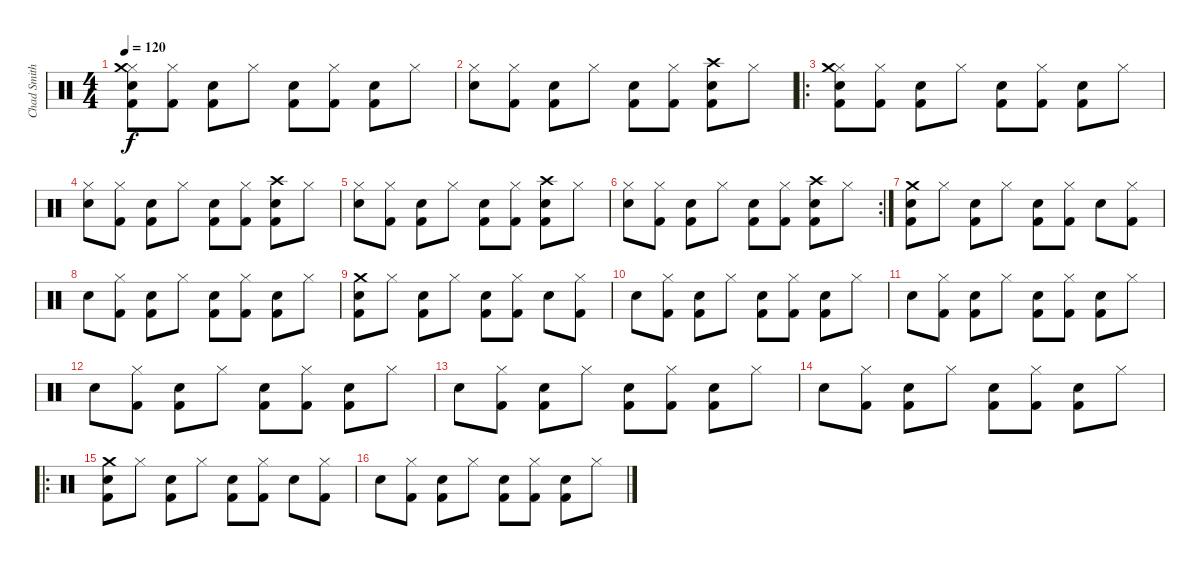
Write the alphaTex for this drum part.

\track ("Chad Smith" "Chad Smith") {instrument percussion}
\staff {score}
\articulation defaults
\ts (4 4)
\tempo 120
\clef neutral
\ks c
("Electric Snare (hit)" "Hi-Hat (closed)" "Crash medium (hit)" "Kick (hit) 2").8{dy f} ("Hi-Hat (closed)" "Kick (hit) 2").8 ("Electric Snare (hit)" "Kick (hit) 2").8 "Hi-Hat (closed)".8 ("Electric Snare (hit)" "Kick (hit) 2").8 ("Hi-Hat (closed)" "Kick (hit) 2").8 ("Electric Snare (hit)" "Kick (hit) 2").8 "Hi-Hat (closed)".8 |
("Electric Snare (hit)" "Hi-Hat (closed)").8 ("Hi-Hat (closed)" "Kick (hit) 2").8 ("Electric Snare (hit)" "Kick (hit) 2").8 "Hi-Hat (closed)".8 ("Electric Snare (hit)" "Kick (hit) 2").8 ("Hi-Hat (closed)" "Kick (hit) 2").8 ("Electric Snare (hit)" "Kick (hit) 2" "Crash high (hit)").8 "Hi-Hat (closed)".8 |
\ro
("Electric Snare (hit)" "Hi-Hat (closed)" "Crash medium (hit)" "Kick (hit) 2").8 ("Hi-Hat (closed)" "Kick (hit) 2").8 ("Electric Snare (hit)" "Kick (hit) 2").8 "Hi-Hat (closed)".8 ("Electric Snare (hit)" "Kick (hit) 2").8 ("Hi-Hat (closed)" "Kick (hit) 2").8 ("Electric Snare (hit)" "Kick (hit) 2").8 "Hi-Hat (closed)".8 |
("Electric Snare (hit)" "Hi-Hat (closed)").8 ("Hi-Hat (closed)" "Kick (hit) 2").8 ("Electric Snare (hit)" "Kick (hit) 2").8 "Hi-Hat (closed)".8 ("Electric Snare (hit)" "Kick (hit) 2").8 ("Hi-Hat (closed)" "Kick (hit) 2").8 ("Electric Snare (hit)" "Kick (hit) 2" "Crash high (hit)").8 "Hi-Hat (closed)".8 |
("Electric Snare (hit)" "Hi-Hat (closed)").8 ("Hi-Hat (closed)" "Kick (hit) 2").8 ("Electric Snare (hit)" "Kick (hit) 2").8 "Hi-Hat (closed)".8 ("Electric Snare (hit)" "Kick (hit) 2").8 ("Hi-Hat (closed)" "Kick (hit) 2").8 ("Electric Snare (hit)" "Kick (hit) 2" "Crash high (hit)").8 "Hi-Hat (closed)".8 |
\rc 2
("Electric Snare (hit)" "Hi-Hat (closed)").8 ("Hi-Hat (closed)" "Kick (hit) 2").8 ("Electric Snare (hit)" "Kick (hit) 2").8 "Hi-Hat (closed)".8 ("Electric Snare (hit)" "Kick (hit) 2").8 ("Hi-Hat (closed)" "Kick (hit) 2").8 ("Electric Snare (hit)" "Kick (hit) 2" "Crash high (hit)").8 "Hi-Hat (closed)".8 |
("Electric Snare (hit)" "Crash medium (hit)" "Kick (hit) 2").8 "Hi-Hat (closed)".8 ("Electric Snare (hit)" "Kick (hit) 2").8 "Hi-Hat (closed)".8 ("Electric Snare (hit)" "Kick (hit) 2").8 ("Hi-Hat (closed)" "Kick (hit) 2").8 "Electric Snare (hit)".8 ("Hi-Hat (closed)" "Kick (hit) 2").8 |
"Electric Snare (hit)".8 ("Hi-Hat (closed)" "Kick (hit) 2").8 ("Electric Snare (hit)" "Kick (hit) 2").8 "Hi-Hat (closed)".8 ("Electric Snare (hit)" "Kick (hit) 2").8 ("Hi-Hat (closed)" "Kick (hit) 2").8 ("Electric Snare (hit)" "Kick (hit) 2").8 "Hi-Hat (closed)".8 |
("Electric Snare (hit)" "Crash medium (hit)" "Kick (hit) 2").8 "Hi-Hat (closed)".8 ("Electric Snare (hit)" "Kick (hit) 2").8 "Hi-Hat (closed)".8 ("Electric Snare (hit)" "Kick (hit) 2").8 ("Hi-Hat (closed)" "Kick (hit) 2").8 "Electric Snare (hit)".8 ("Hi-Hat (closed)" "Kick (hit) 2").8 |
"Electric Snare (hit)".8 ("Hi-Hat (closed)" "Kick (hit) 2").8 ("Electric Snare (hit)" "Kick (hit) 2").8 "Hi-Hat (closed)".8 ("Electric Snare (hit)" "Kick (hit) 2").8 ("Hi-Hat (closed)" "Kick (hit) 2").8 ("Electric Snare (hit)" "Kick (hit) 2").8 "Hi-Hat (closed)".8 |
"Electric Snare (hit)".8 ("Hi-Hat (closed)" "Kick (hit) 2").8 ("Electric Snare (hit)" "Kick (hit) 2").8 "Hi-Hat (closed)".8 ("Electric Snare (hit)" "Kick (hit) 2").8 ("Hi-Hat (closed)" "Kick (hit) 2").8 ("Electric Snare (hit)" "Kick (hit) 2").8 "Hi-Hat (closed)".8 |
"Electric Snare (hit)".8 ("Hi-Hat (closed)" "Kick (hit) 2").8 ("Electric Snare (hit)" "Kick (hit) 2").8 "Hi-Hat (closed)".8 ("Electric Snare (hit)" "Kick (hit) 2").8 ("Hi-Hat (closed)" "Kick (hit) 2").8 ("Electric Snare (hit)" "Kick (hit) 2").8 "Hi-Hat (closed)".8 |
"Electric Snare (hit)".8 ("Hi-Hat (closed)" "Kick (hit) 2").8 ("Electric Snare (hit)" "Kick (hit) 2").8 "Hi-Hat (closed)".8 ("Electric Snare (hit)" "Kick (hit) 2").8 ("Hi-Hat (closed)" "Kick (hit) 2").8 ("Electric Snare (hit)" "Kick (hit) 2").8 "Hi-Hat (closed)".8 |
"Electric Snare (hit)".8 ("Hi-Hat (closed)" "Kick (hit) 2").8 ("Electric Snare (hit)" "Kick (hit) 2").8 "Hi-Hat (closed)".8 ("Electric Snare (hit)" "Kick (hit) 2").8 ("Hi-Hat (closed)" "Kick (hit) 2").8 ("Electric Snare (hit)" "Kick (hit) 2").8 "Hi-Hat (closed)".8 |
\ro
("Electric Snare (hit)" "Crash medium (hit)" "Kick (hit) 2").8 "Hi-Hat (closed)".8 ("Electric Snare (hit)" "Kick (hit) 2").8 "Hi-Hat (closed)".8 ("Electric Snare (hit)" "Kick (hit) 2").8 ("Hi-Hat (closed)" "Kick (hit) 2").8 "Electric Snare (hit)".8 ("Hi-Hat (closed)" "Kick (hit) 2").8 |
"Electric Snare (hit)".8 ("Hi-Hat (closed)" "Kick (hit) 2").8 ("Electric Snare (hit)" "Kick (hit) 2").8 "Hi-Hat (closed)".8 ("Electric Snare (hit)" "Kick (hit) 2").8 ("Hi-Hat (closed)" "Kick (hit) 2").8 ("Electric Snare (hit)" "Kick (hit) 2").8 "Hi-Hat (closed)".8
